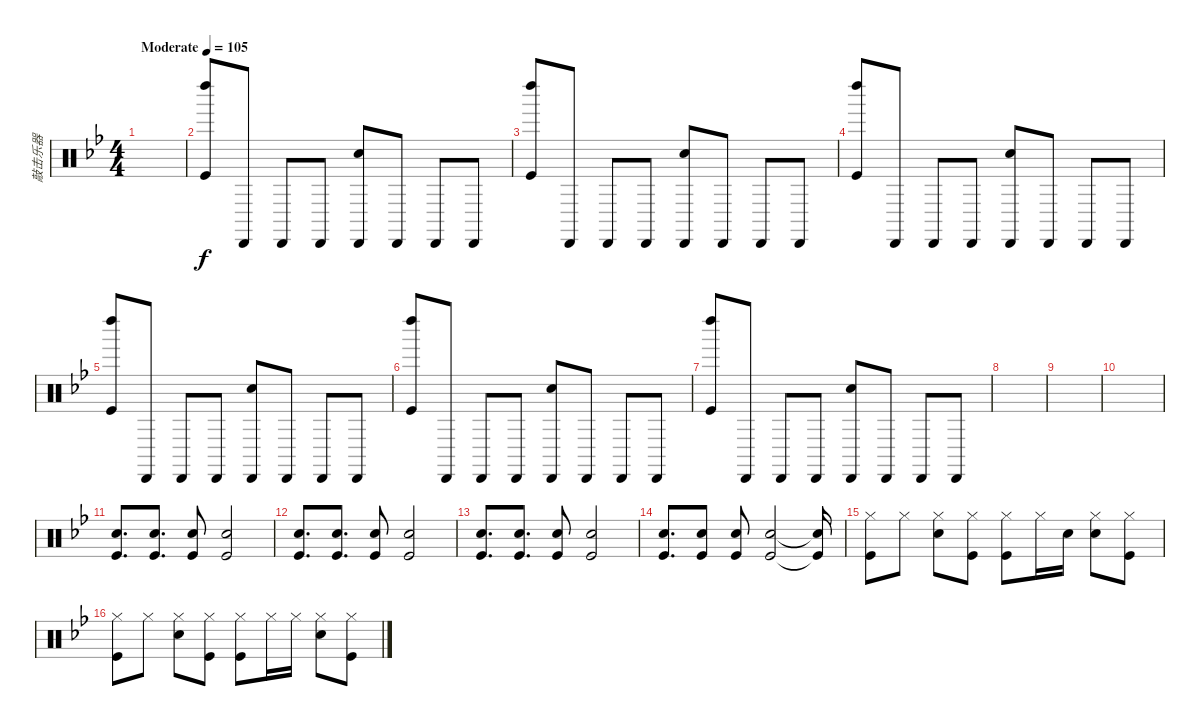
\track ("敲击乐器" "敲击乐器") {instrument percussion}
\staff {score}
\articulation defaults
\ts (4 4)
\tempo (105 "Moderate")
\clef neutral
\ks bb
|
("Left Maraca (hit)" "Kick (hit)").8 "Cabasa (hit)".8 "Cabasa (hit)".8 "Cabasa (hit)".8 ("Snare (hit) 2" "Cabasa (hit)").8 "Cabasa (hit)".8 "Cabasa (hit)".8 "Cabasa (hit)".8 |
("Left Maraca (hit)" "Kick (hit)").8 "Cabasa (hit)".8 "Cabasa (hit)".8 "Cabasa (hit)".8 ("Snare (hit) 2" "Cabasa (hit)").8 "Cabasa (hit)".8 "Cabasa (hit)".8 "Cabasa (hit)".8 |
("Left Maraca (hit)" "Kick (hit)").8 "Cabasa (hit)".8 "Cabasa (hit)".8 "Cabasa (hit)".8 ("Snare (hit) 2" "Cabasa (hit)").8 "Cabasa (hit)".8 "Cabasa (hit)".8 "Cabasa (hit)".8 |
("Left Maraca (hit)" "Kick (hit)").8 "Cabasa (hit)".8 "Cabasa (hit)".8 "Cabasa (hit)".8 ("Snare (hit) 2" "Cabasa (hit)").8 "Cabasa (hit)".8 "Cabasa (hit)".8 "Cabasa (hit)".8 |
("Left Maraca (hit)" "Kick (hit)").8 "Cabasa (hit)".8 "Cabasa (hit)".8 "Cabasa (hit)".8 ("Snare (hit) 2" "Cabasa (hit)").8 "Cabasa (hit)".8 "Cabasa (hit)".8 "Cabasa (hit)".8 |
("Left Maraca (hit)" "Kick (hit)").8 "Cabasa (hit)".8 "Cabasa (hit)".8 "Cabasa (hit)".8 ("Snare (hit) 2" "Cabasa (hit)").8 "Cabasa (hit)".8 "Cabasa (hit)".8 "Cabasa (hit)".8 |
|
|
|
("Snare (hit) 2" "Kick (hit)").8{d} ("Snare (hit) 2" "Kick (hit)").8{d} ("Snare (hit) 2" "Kick (hit)").8 ("Snare (hit) 2" "Kick (hit)").2 |
("Snare (hit) 2" "Kick (hit)").8{d} ("Snare (hit) 2" "Kick (hit)").8{d} ("Snare (hit) 2" "Kick (hit)").8 ("Snare (hit) 2" "Kick (hit)").2 |
("Snare (hit) 2" "Kick (hit)").8{d} ("Snare (hit) 2" "Kick (hit)").8{d} ("Snare (hit) 2" "Kick (hit)").8 ("Snare (hit) 2" "Kick (hit)").2 |
("Snare (hit) 2" "Kick (hit)").8{d} ("Snare (hit) 2" "Kick (hit)").8 ("Snare (hit) 2" "Kick (hit)").8 ("Snare (hit) 2" "Kick (hit)").2 ("Snare (hit) 2"{t} "Kick (hit)"{t}).16 |
("Hi-Hat (closed)" "Kick (hit)").8 "Hi-Hat (closed)".8 ("Hi-Hat (closed)" "Snare (hit) 2").8 ("Hi-Hat (closed)" "Kick (hit)").8 ("Hi-Hat (closed)" "Kick (hit)").8 "Hi-Hat (closed)".16 "Snare (hit) 2".16 ("Hi-Hat (closed)" "Snare (hit) 2").8 ("Hi-Hat (closed)" "Kick (hit)").8 |
("Hi-Hat (closed)" "Kick (hit)").8 "Hi-Hat (closed)".8 ("Hi-Hat (closed)" "Snare (hit) 2").8 ("Hi-Hat (closed)" "Kick (hit)").8 ("Hi-Hat (closed)" "Kick (hit)").8 "Hi-Hat (closed)".16 "Hi-Hat (closed)".16 ("Hi-Hat (closed)" "Snare (hit) 2").8 ("Hi-Hat (closed)" "Kick (hit)").8
